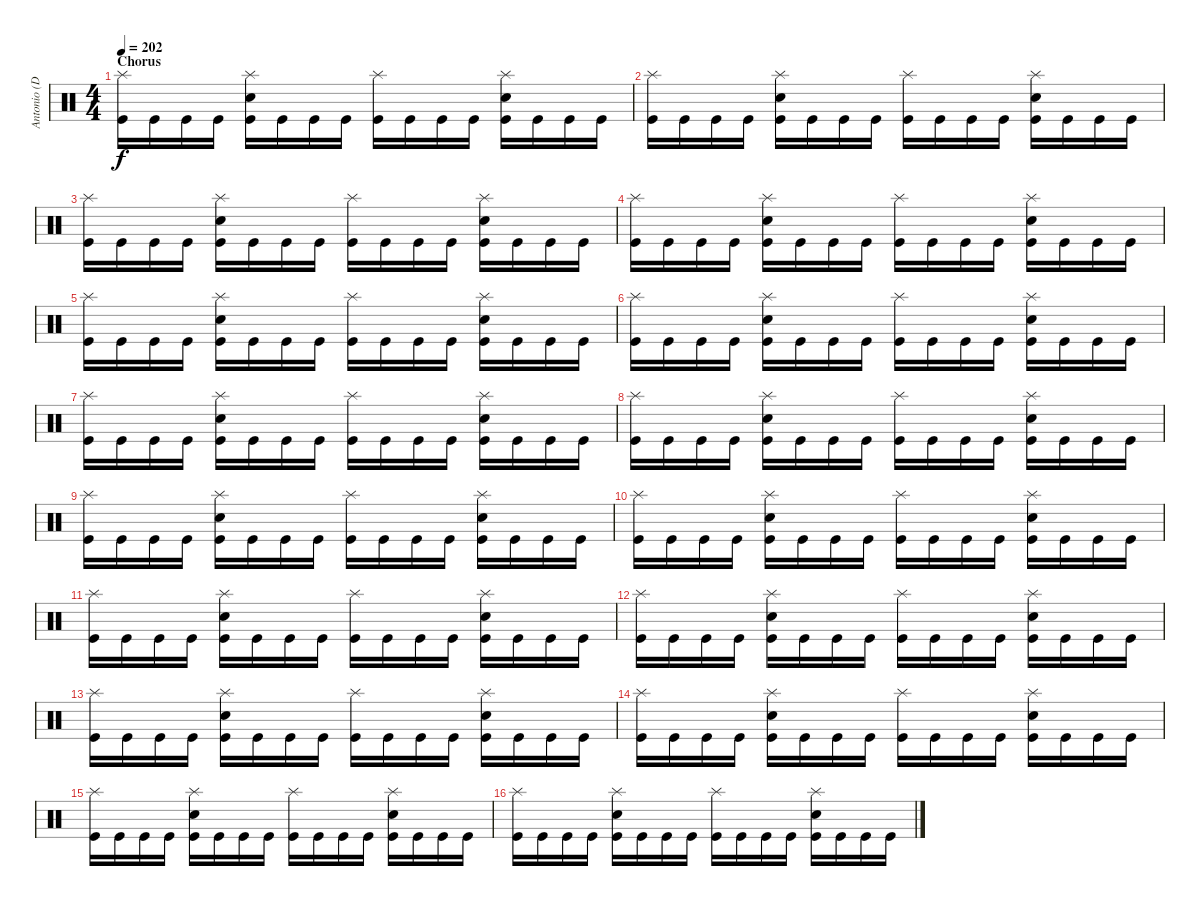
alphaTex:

\track ("Antonio (Drums)" "Antonio (D") {instrument percussion}
\staff {score}
\articulation defaults
\ts (4 4)
\section ("" "Chorus")
\tempo 202
\clef neutral
\ks c
("Splash (hit)" "Kick (hit)").16{dy f} "Kick (hit)".16 "Kick (hit)".16 "Kick (hit)".16 ("Splash (hit)" "Electric Snare (hit)" "Kick (hit)").16 "Kick (hit)".16 "Kick (hit)".16 "Kick (hit)".16 ("Splash (hit)" "Kick (hit)").16 "Kick (hit)".16 "Kick (hit)".16 "Kick (hit)".16 ("Splash (hit)" "Electric Snare (hit)" "Kick (hit)").16 "Kick (hit)".16 "Kick (hit)".16 "Kick (hit)".16 |
("Splash (hit)" "Kick (hit)").16 "Kick (hit)".16 "Kick (hit)".16 "Kick (hit)".16 ("Splash (hit)" "Electric Snare (hit)" "Kick (hit)").16 "Kick (hit)".16 "Kick (hit)".16 "Kick (hit)".16 ("Splash (hit)" "Kick (hit)").16 "Kick (hit)".16 "Kick (hit)".16 "Kick (hit)".16 ("Splash (hit)" "Electric Snare (hit)" "Kick (hit)").16 "Kick (hit)".16 "Kick (hit)".16 "Kick (hit)".16 |
("Splash (hit)" "Kick (hit)").16 "Kick (hit)".16 "Kick (hit)".16 "Kick (hit)".16 ("Splash (hit)" "Electric Snare (hit)" "Kick (hit)").16 "Kick (hit)".16 "Kick (hit)".16 "Kick (hit)".16 ("Splash (hit)" "Kick (hit)").16 "Kick (hit)".16 "Kick (hit)".16 "Kick (hit)".16 ("Splash (hit)" "Electric Snare (hit)" "Kick (hit)").16 "Kick (hit)".16 "Kick (hit)".16 "Kick (hit)".16 |
("Splash (hit)" "Kick (hit)").16 "Kick (hit)".16 "Kick (hit)".16 "Kick (hit)".16 ("Splash (hit)" "Electric Snare (hit)" "Kick (hit)").16 "Kick (hit)".16 "Kick (hit)".16 "Kick (hit)".16 ("Splash (hit)" "Kick (hit)").16 "Kick (hit)".16 "Kick (hit)".16 "Kick (hit)".16 ("Splash (hit)" "Electric Snare (hit)" "Kick (hit)").16 "Kick (hit)".16 "Kick (hit)".16 "Kick (hit)".16 |
("Splash (hit)" "Kick (hit)").16 "Kick (hit)".16 "Kick (hit)".16 "Kick (hit)".16 ("Splash (hit)" "Electric Snare (hit)" "Kick (hit)").16 "Kick (hit)".16 "Kick (hit)".16 "Kick (hit)".16 ("Splash (hit)" "Kick (hit)").16 "Kick (hit)".16 "Kick (hit)".16 "Kick (hit)".16 ("Splash (hit)" "Electric Snare (hit)" "Kick (hit)").16 "Kick (hit)".16 "Kick (hit)".16 "Kick (hit)".16 |
("Splash (hit)" "Kick (hit)").16 "Kick (hit)".16 "Kick (hit)".16 "Kick (hit)".16 ("Splash (hit)" "Electric Snare (hit)" "Kick (hit)").16 "Kick (hit)".16 "Kick (hit)".16 "Kick (hit)".16 ("Splash (hit)" "Kick (hit)").16 "Kick (hit)".16 "Kick (hit)".16 "Kick (hit)".16 ("Splash (hit)" "Electric Snare (hit)" "Kick (hit)").16 "Kick (hit)".16 "Kick (hit)".16 "Kick (hit)".16 |
("Splash (hit)" "Kick (hit)").16 "Kick (hit)".16 "Kick (hit)".16 "Kick (hit)".16 ("Splash (hit)" "Electric Snare (hit)" "Kick (hit)").16 "Kick (hit)".16 "Kick (hit)".16 "Kick (hit)".16 ("Splash (hit)" "Kick (hit)").16 "Kick (hit)".16 "Kick (hit)".16 "Kick (hit)".16 ("Splash (hit)" "Electric Snare (hit)" "Kick (hit)").16 "Kick (hit)".16 "Kick (hit)".16 "Kick (hit)".16 |
("Splash (hit)" "Kick (hit)").16 "Kick (hit)".16 "Kick (hit)".16 "Kick (hit)".16 ("Splash (hit)" "Electric Snare (hit)" "Kick (hit)").16 "Kick (hit)".16 "Kick (hit)".16 "Kick (hit)".16 ("Splash (hit)" "Kick (hit)").16 "Kick (hit)".16 "Kick (hit)".16 "Kick (hit)".16 ("Splash (hit)" "Electric Snare (hit)" "Kick (hit)").16 "Kick (hit)".16 "Kick (hit)".16 "Kick (hit)".16 |
("Splash (hit)" "Kick (hit)").16 "Kick (hit)".16 "Kick (hit)".16 "Kick (hit)".16 ("Splash (hit)" "Electric Snare (hit)" "Kick (hit)").16 "Kick (hit)".16 "Kick (hit)".16 "Kick (hit)".16 ("Splash (hit)" "Kick (hit)").16 "Kick (hit)".16 "Kick (hit)".16 "Kick (hit)".16 ("Splash (hit)" "Electric Snare (hit)" "Kick (hit)").16 "Kick (hit)".16 "Kick (hit)".16 "Kick (hit)".16 |
("Splash (hit)" "Kick (hit)").16 "Kick (hit)".16 "Kick (hit)".16 "Kick (hit)".16 ("Splash (hit)" "Electric Snare (hit)" "Kick (hit)").16 "Kick (hit)".16 "Kick (hit)".16 "Kick (hit)".16 ("Splash (hit)" "Kick (hit)").16 "Kick (hit)".16 "Kick (hit)".16 "Kick (hit)".16 ("Splash (hit)" "Electric Snare (hit)" "Kick (hit)").16 "Kick (hit)".16 "Kick (hit)".16 "Kick (hit)".16 |
("Splash (hit)" "Kick (hit)").16 "Kick (hit)".16 "Kick (hit)".16 "Kick (hit)".16 ("Splash (hit)" "Electric Snare (hit)" "Kick (hit)").16 "Kick (hit)".16 "Kick (hit)".16 "Kick (hit)".16 ("Splash (hit)" "Kick (hit)").16 "Kick (hit)".16 "Kick (hit)".16 "Kick (hit)".16 ("Splash (hit)" "Electric Snare (hit)" "Kick (hit)").16 "Kick (hit)".16 "Kick (hit)".16 "Kick (hit)".16 |
("Splash (hit)" "Kick (hit)").16 "Kick (hit)".16 "Kick (hit)".16 "Kick (hit)".16 ("Splash (hit)" "Electric Snare (hit)" "Kick (hit)").16 "Kick (hit)".16 "Kick (hit)".16 "Kick (hit)".16 ("Splash (hit)" "Kick (hit)").16 "Kick (hit)".16 "Kick (hit)".16 "Kick (hit)".16 ("Splash (hit)" "Electric Snare (hit)" "Kick (hit)").16 "Kick (hit)".16 "Kick (hit)".16 "Kick (hit)".16 |
("Splash (hit)" "Kick (hit)").16 "Kick (hit)".16 "Kick (hit)".16 "Kick (hit)".16 ("Splash (hit)" "Electric Snare (hit)" "Kick (hit)").16 "Kick (hit)".16 "Kick (hit)".16 "Kick (hit)".16 ("Splash (hit)" "Kick (hit)").16 "Kick (hit)".16 "Kick (hit)".16 "Kick (hit)".16 ("Splash (hit)" "Electric Snare (hit)" "Kick (hit)").16 "Kick (hit)".16 "Kick (hit)".16 "Kick (hit)".16 |
("Splash (hit)" "Kick (hit)").16 "Kick (hit)".16 "Kick (hit)".16 "Kick (hit)".16 ("Splash (hit)" "Electric Snare (hit)" "Kick (hit)").16 "Kick (hit)".16 "Kick (hit)".16 "Kick (hit)".16 ("Splash (hit)" "Kick (hit)").16 "Kick (hit)".16 "Kick (hit)".16 "Kick (hit)".16 ("Splash (hit)" "Electric Snare (hit)" "Kick (hit)").16 "Kick (hit)".16 "Kick (hit)".16 "Kick (hit)".16 |
("Splash (hit)" "Kick (hit)").16 "Kick (hit)".16 "Kick (hit)".16 "Kick (hit)".16 ("Splash (hit)" "Electric Snare (hit)" "Kick (hit)").16 "Kick (hit)".16 "Kick (hit)".16 "Kick (hit)".16 ("Splash (hit)" "Kick (hit)").16 "Kick (hit)".16 "Kick (hit)".16 "Kick (hit)".16 ("Splash (hit)" "Electric Snare (hit)" "Kick (hit)").16 "Kick (hit)".16 "Kick (hit)".16 "Kick (hit)".16 |
("Splash (hit)" "Kick (hit)").16 "Kick (hit)".16 "Kick (hit)".16 "Kick (hit)".16 ("Splash (hit)" "Electric Snare (hit)" "Kick (hit)").16 "Kick (hit)".16 "Kick (hit)".16 "Kick (hit)".16 ("Splash (hit)" "Kick (hit)").16 "Kick (hit)".16 "Kick (hit)".16 "Kick (hit)".16 ("Splash (hit)" "Electric Snare (hit)" "Kick (hit)").16 "Kick (hit)".16 "Kick (hit)".16 "Kick (hit)".16
